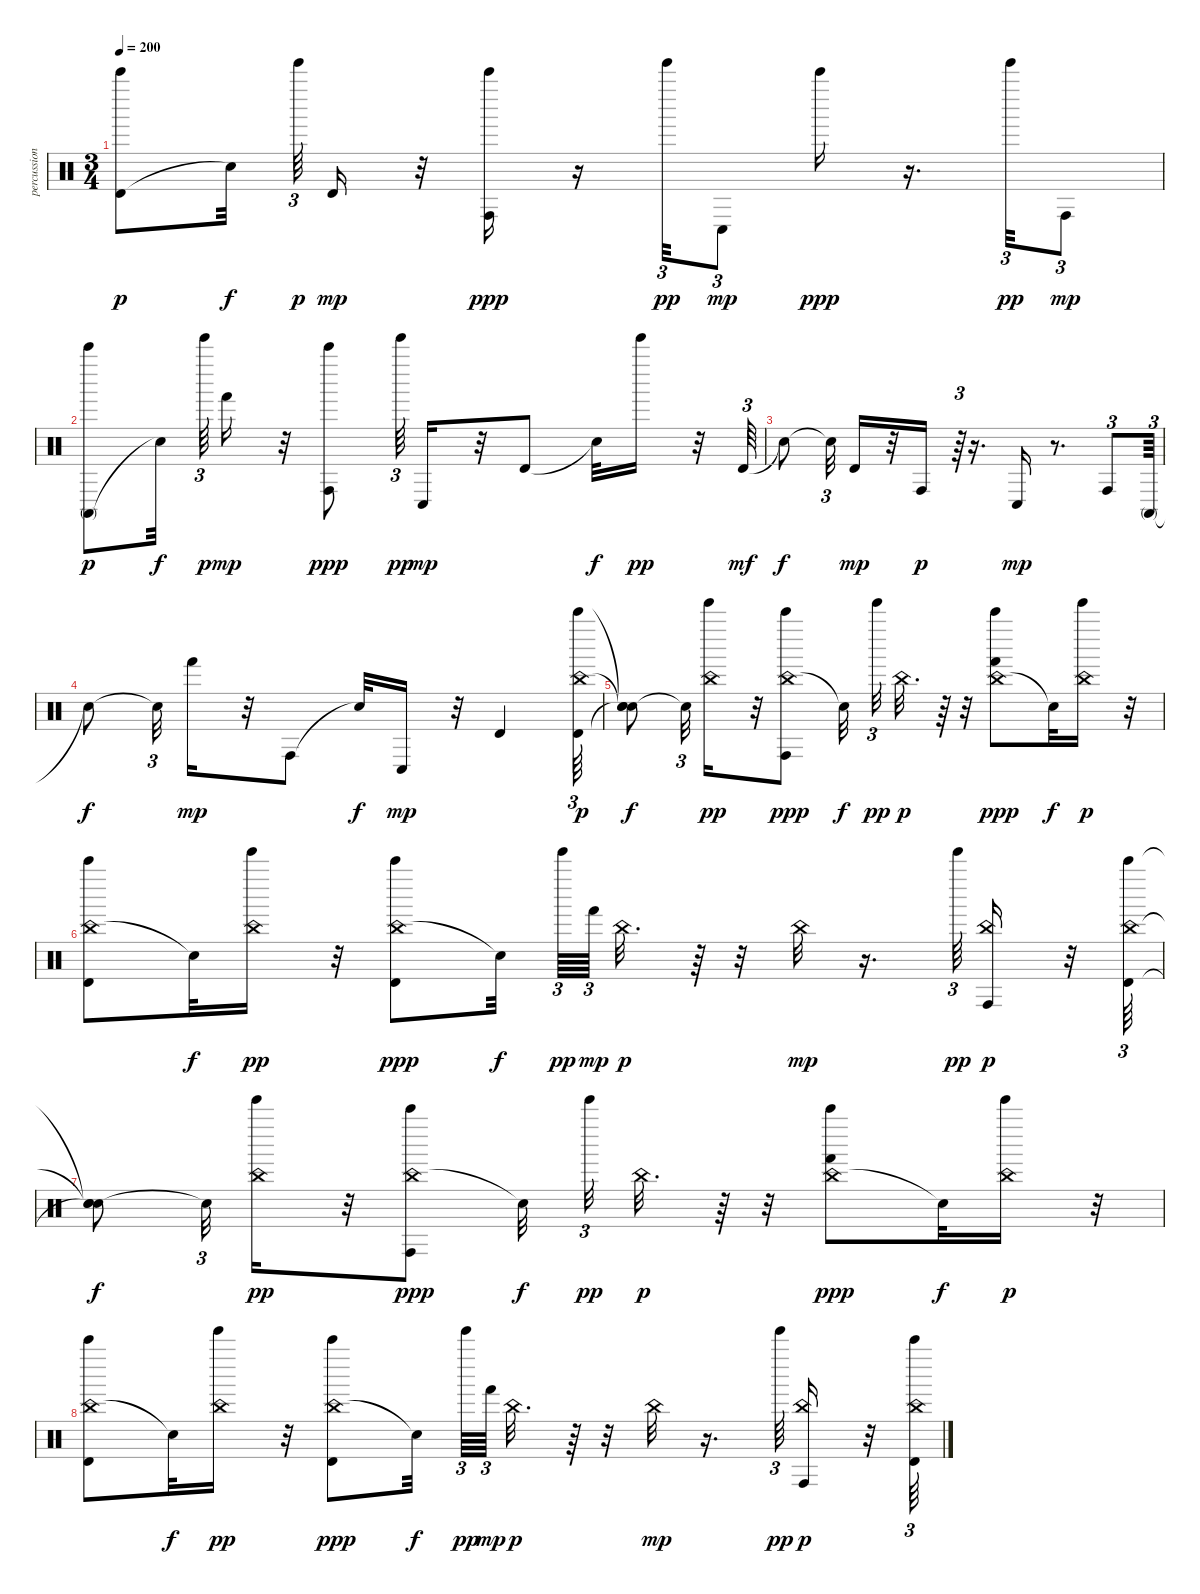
\track ("percussion" "percussion") {instrument percussion}
\staff {score}
\articulation defaults
\ts (3 4)
\tempo 200
\clef neutral
\ks c
("Timbale high (hit)" "Bell Tree (hit)").8{dy p} "Snare (hit)"{t}.32{dy f} "Tinkle Bell (hit)".64{tu (3 2) dy p} "Timbale high (hit)".16{dy mp} r.32 ("Conga high (hit)" "Bell Tree (hit)").16{dy ppp} r.16 "Tinkle Bell (hit)".32{tu (3 2) dy pp} "Conga low (hit)".8{tu (3 2) dy mp} "Bell Tree (hit)".16{dy ppp} r.16{d} "Tinkle Bell (hit)".32{tu (3 2) dy pp} "Conga high (hit)".8{tu (3 2) dy mp} |
("Conga high (mute)" "Bell Tree (hit)").8{dy p} "Snare (hit)"{t}.32{dy f} "Tinkle Bell (hit)".64{tu (3 2) dy p} "Hand (hit)".16{dy mp} r.32 ("Conga high (hit)" "Bell Tree (hit)").8{dy ppp} "Tinkle Bell (hit)".64{tu (3 2) dy pp} "Conga low (hit)".16{dy mp} r.32 "Timbale high (hit)".8 "Snare (hit)"{t}.32{dy f} "Tinkle Bell (hit)".16{dy pp} r.32 "Timbale high (hit)".64{tu (3 2) dy mf} |
"Snare (hit)"{t}.8{dy f} "Snare (hit)"{t}.32{tu (3 2)} "Timbale high (hit)".16{dy mp} r.32 "Conga high (hit)".16{dy p} r.64{tu (3 2)} r.16{d} "Conga low (hit)".16{dy mp} r.8{d} "Conga high (hit)".8{tu (3 2)} "Conga high (mute)".64{tu (3 2)} |
"Snare (hit)"{t}.8{dy f} "Snare (hit)"{t}.32{tu (3 2)} "Hand (hit)".16{dy mp} r.32 "Conga high (hit)".8 "Snare (hit)"{t}.32{dy f} "Conga low (hit)".16{dy mp} r.32 "Timbale high (hit)".4 ("China (hit)" "Timbale high (hit)" "Bell Tree (hit)").64{tu (3 2) dy p} |
("Snare (hit)"{t} "Snare (hit)"{t} "Snare (hit)"{t}).8{dy f} "Snare (hit)"{t}.32{tu (3 2)} ("Tinkle Bell (hit)" "China (hit)").16{dy pp} r.32 ("China (hit)" "Conga high (hit)" "Bell Tree (hit)").8{dy ppp} "Snare (hit)"{t}.32{dy f} "Tinkle Bell (hit)".32{tu (3 2) dy pp} "China (hit)".32{d dy p} r.64 r.32 ("China (hit)" "Hand (hit)" "Bell Tree (hit)").8{dy ppp} "Snare (hit)"{t}.32{dy f} ("Tinkle Bell (hit)" "China (hit)").16{dy p} r.32 |
("China (hit)" "Timbale high (hit)" "Bell Tree (hit)").8 "Snare (hit)"{t}.32{dy f} ("Tinkle Bell (hit)" "China (hit)").16{dy pp} r.32 ("China (hit)" "Timbale high (hit)" "Bell Tree (hit)").8{dy ppp} "Snare (hit)"{t}.32{dy f} "Tinkle Bell (hit)".64{tu (3 2) dy pp} "Hand (hit)".64{tu (3 2) dy mp} "China (hit)".32{d dy p} r.64 r.32 "China (hit)".32{dy mp} r.16{d} "Tinkle Bell (hit)".64{tu (3 2) dy pp} ("Conga high (hit)" "China (hit)").16{dy p} r.32 ("China (hit)" "Timbale high (hit)" "Bell Tree (hit)").64{tu (3 2)} |
("Snare (hit)"{t} "Snare (hit)"{t} "Snare (hit)"{t}).8{dy f} "Snare (hit)"{t}.32{tu (3 2)} ("Tinkle Bell (hit)" "China (hit)").16{dy pp} r.32 ("China (hit)" "Conga high (hit)" "Bell Tree (hit)").8{dy ppp} "Snare (hit)"{t}.32{dy f} "Tinkle Bell (hit)".32{tu (3 2) dy pp} "China (hit)".32{d dy p} r.64 r.32 ("China (hit)" "Hand (hit)" "Bell Tree (hit)").8{dy ppp} "Snare (hit)"{t}.32{dy f} ("Tinkle Bell (hit)" "China (hit)").16{dy p} r.32 |
("China (hit)" "Timbale high (hit)" "Bell Tree (hit)").8 "Snare (hit)"{t}.32{dy f} ("Tinkle Bell (hit)" "China (hit)").16{dy pp} r.32 ("China (hit)" "Timbale high (hit)" "Bell Tree (hit)").8{dy ppp} "Snare (hit)"{t}.32{dy f} "Tinkle Bell (hit)".64{tu (3 2) dy pp} "Hand (hit)".64{tu (3 2) dy mp} "China (hit)".32{d dy p} r.64 r.32 "China (hit)".32{dy mp} r.16{d} "Tinkle Bell (hit)".64{tu (3 2) dy pp} ("Conga high (hit)" "China (hit)").16{dy p} r.32 ("China (hit)" "Timbale high (hit)" "Bell Tree (hit)").64{tu (3 2)}
